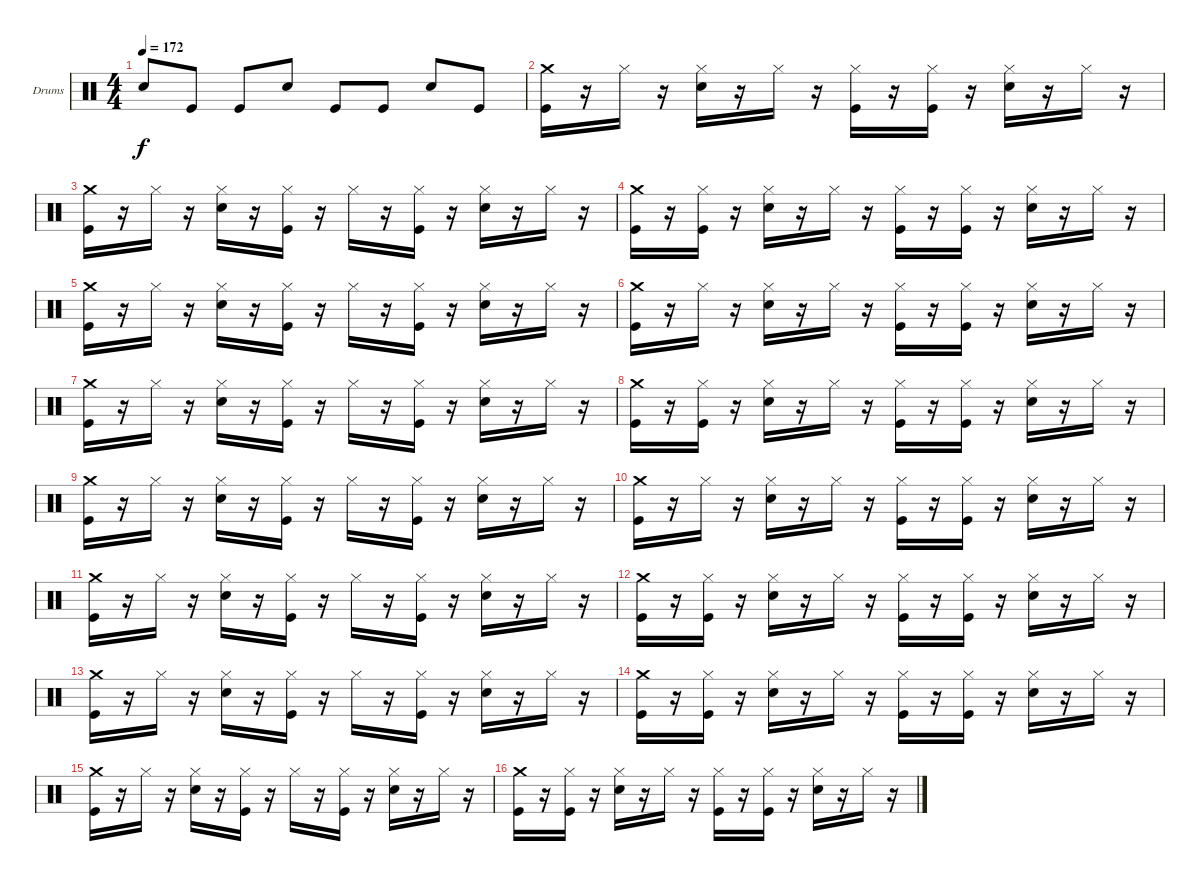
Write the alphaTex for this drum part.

\bracketExtendMode groupsimilarinstruments
\firstSystemTrackNameOrientation horizontal
\otherSystemsTrackNameOrientation horizontal
\track ("Drumkit" "Drums") {instrument percussion}
\staff {score}
\articulation defaults
\ts (4 4)
\tempo 172
\clef neutral
\ks c "Snare (hit) 2".8{dy f} "Kick (hit)".8 "Kick (hit)".8 "Snare (hit) 2".8 "Kick (hit)".8 "Kick (hit)".8 "Snare (hit) 2".8 "Kick (hit)".8
|
("Kick (hit)" "Crash medium (hit)").16 r.16 "Hi-Hat (closed)".16 r.16 ("Snare (hit) 2" "Hi-Hat (closed)").16 r.16 "Hi-Hat (closed)".16 r.16 ("Kick (hit)" "Hi-Hat (closed)").16 r.16 ("Kick (hit)" "Hi-Hat (closed)").16 r.16 ("Snare (hit) 2" "Hi-Hat (closed)").16 r.16 "Hi-Hat (closed)".16 r.16 |
("Kick (hit)" "Crash medium (hit)").16 r.16 "Hi-Hat (closed)".16 r.16 ("Snare (hit) 2" "Hi-Hat (closed)").16 r.16 ("Kick (hit)" "Hi-Hat (closed)").16 r.16 "Hi-Hat (closed)".16 r.16 ("Kick (hit)" "Hi-Hat (closed)").16 r.16 ("Snare (hit) 2" "Hi-Hat (closed)").16 r.16 "Hi-Hat (closed)".16 r.16 |
("Kick (hit)" "Crash medium (hit)").16 r.16 ("Kick (hit)" "Hi-Hat (closed)").16 r.16 ("Snare (hit) 2" "Hi-Hat (closed)").16 r.16 "Hi-Hat (closed)".16 r.16 ("Kick (hit)" "Hi-Hat (closed)").16 r.16 ("Kick (hit)" "Hi-Hat (closed)").16 r.16 ("Snare (hit) 2" "Hi-Hat (closed)").16 r.16 "Hi-Hat (closed)".16 r.16 |
("Kick (hit)" "Crash medium (hit)").16 r.16 "Hi-Hat (closed)".16 r.16 ("Snare (hit) 2" "Hi-Hat (closed)").16 r.16 ("Kick (hit)" "Hi-Hat (closed)").16 r.16 "Hi-Hat (closed)".16 r.16 ("Kick (hit)" "Hi-Hat (closed)").16 r.16 ("Snare (hit) 2" "Hi-Hat (closed)").16 r.16 "Hi-Hat (closed)".16 r.16 |
("Kick (hit)" "Crash medium (hit)").16 r.16 "Hi-Hat (closed)".16 r.16 ("Snare (hit) 2" "Hi-Hat (closed)").16 r.16 "Hi-Hat (closed)".16 r.16 ("Kick (hit)" "Hi-Hat (closed)").16 r.16 ("Kick (hit)" "Hi-Hat (closed)").16 r.16 ("Snare (hit) 2" "Hi-Hat (closed)").16 r.16 "Hi-Hat (closed)".16 r.16 |
("Kick (hit)" "Crash medium (hit)").16 r.16 "Hi-Hat (closed)".16 r.16 ("Snare (hit) 2" "Hi-Hat (closed)").16 r.16 ("Kick (hit)" "Hi-Hat (closed)").16 r.16 "Hi-Hat (closed)".16 r.16 ("Kick (hit)" "Hi-Hat (closed)").16 r.16 ("Snare (hit) 2" "Hi-Hat (closed)").16 r.16 "Hi-Hat (closed)".16 r.16 |
("Kick (hit)" "Crash medium (hit)").16 r.16 ("Kick (hit)" "Hi-Hat (closed)").16 r.16 ("Snare (hit) 2" "Hi-Hat (closed)").16 r.16 "Hi-Hat (closed)".16 r.16 ("Kick (hit)" "Hi-Hat (closed)").16 r.16 ("Kick (hit)" "Hi-Hat (closed)").16 r.16 ("Snare (hit) 2" "Hi-Hat (closed)").16 r.16 "Hi-Hat (closed)".16 r.16 |
("Kick (hit)" "Crash medium (hit)").16 r.16 "Hi-Hat (closed)".16 r.16 ("Snare (hit) 2" "Hi-Hat (closed)").16 r.16 ("Kick (hit)" "Hi-Hat (closed)").16 r.16 "Hi-Hat (closed)".16 r.16 ("Kick (hit)" "Hi-Hat (closed)").16 r.16 ("Snare (hit) 2" "Hi-Hat (closed)").16 r.16 "Hi-Hat (closed)".16 r.16 |
("Kick (hit)" "Crash medium (hit)").16 r.16 "Hi-Hat (closed)".16 r.16 ("Snare (hit) 2" "Hi-Hat (closed)").16 r.16 "Hi-Hat (closed)".16 r.16 ("Kick (hit)" "Hi-Hat (closed)").16 r.16 ("Kick (hit)" "Hi-Hat (closed)").16 r.16 ("Snare (hit) 2" "Hi-Hat (closed)").16 r.16 "Hi-Hat (closed)".16 r.16 |
("Kick (hit)" "Crash medium (hit)").16 r.16 "Hi-Hat (closed)".16 r.16 ("Snare (hit) 2" "Hi-Hat (closed)").16 r.16 ("Kick (hit)" "Hi-Hat (closed)").16 r.16 "Hi-Hat (closed)".16 r.16 ("Kick (hit)" "Hi-Hat (closed)").16 r.16 ("Snare (hit) 2" "Hi-Hat (closed)").16 r.16 "Hi-Hat (closed)".16 r.16 |
("Kick (hit)" "Crash medium (hit)").16 r.16 ("Kick (hit)" "Hi-Hat (closed)").16 r.16 ("Snare (hit) 2" "Hi-Hat (closed)").16 r.16 "Hi-Hat (closed)".16 r.16 ("Kick (hit)" "Hi-Hat (closed)").16 r.16 ("Kick (hit)" "Hi-Hat (closed)").16 r.16 ("Snare (hit) 2" "Hi-Hat (closed)").16 r.16 "Hi-Hat (closed)".16 r.16 |
("Kick (hit)" "Crash medium (hit)").16 r.16 "Hi-Hat (closed)".16 r.16 ("Snare (hit) 2" "Hi-Hat (closed)").16 r.16 ("Kick (hit)" "Hi-Hat (closed)").16 r.16 "Hi-Hat (closed)".16 r.16 ("Kick (hit)" "Hi-Hat (closed)").16 r.16 ("Snare (hit) 2" "Hi-Hat (closed)").16 r.16 "Hi-Hat (closed)".16 r.16 |
("Kick (hit)" "Crash medium (hit)").16 r.16 ("Kick (hit)" "Hi-Hat (closed)").16 r.16 ("Snare (hit) 2" "Hi-Hat (closed)").16 r.16 "Hi-Hat (closed)".16 r.16 ("Kick (hit)" "Hi-Hat (closed)").16 r.16 ("Kick (hit)" "Hi-Hat (closed)").16 r.16 ("Snare (hit) 2" "Hi-Hat (closed)").16 r.16 "Hi-Hat (closed)".16 r.16 |
("Kick (hit)" "Crash medium (hit)").16 r.16 "Hi-Hat (closed)".16 r.16 ("Snare (hit) 2" "Hi-Hat (closed)").16 r.16 ("Kick (hit)" "Hi-Hat (closed)").16 r.16 "Hi-Hat (closed)".16 r.16 ("Kick (hit)" "Hi-Hat (closed)").16 r.16 ("Snare (hit) 2" "Hi-Hat (closed)").16 r.16 "Hi-Hat (closed)".16 r.16 |
("Kick (hit)" "Crash medium (hit)").16 r.16 ("Kick (hit)" "Hi-Hat (closed)").16 r.16 ("Snare (hit) 2" "Hi-Hat (closed)").16 r.16 "Hi-Hat (closed)".16 r.16 ("Kick (hit)" "Hi-Hat (closed)").16 r.16 ("Kick (hit)" "Hi-Hat (closed)").16 r.16 ("Snare (hit) 2" "Hi-Hat (closed)").16 r.16 "Hi-Hat (closed)".16 r.16
